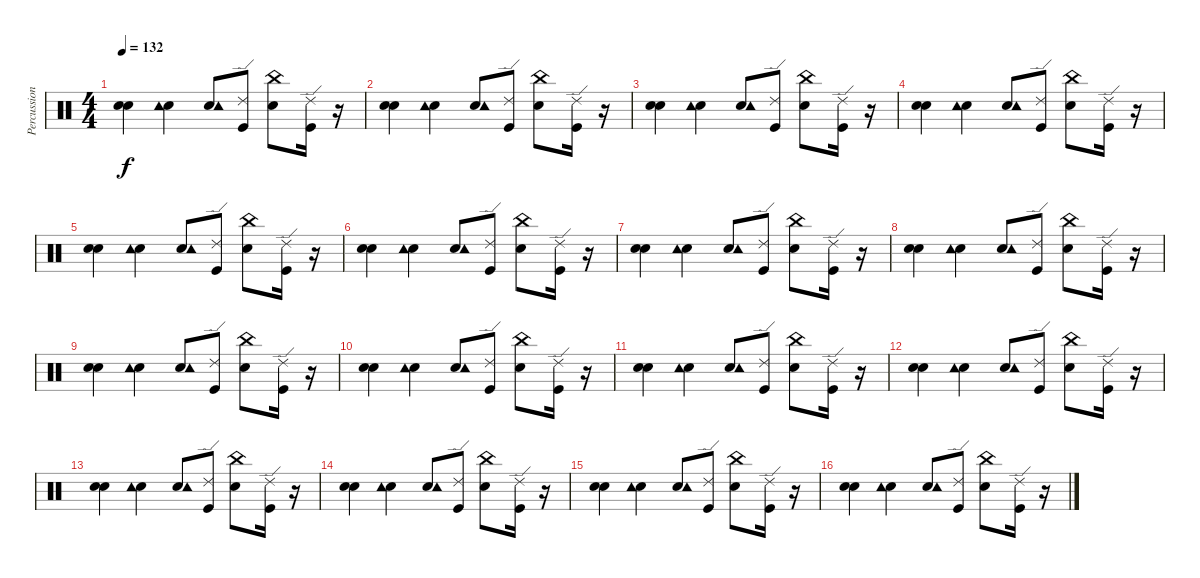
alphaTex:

\track ("Percussions (Reni)" "Percussion") {instrument percussion}
\staff {score}
\articulation defaults
\ts (4 4)
\tempo 132
\clef neutral
\ks c
("Snare (hit) 2" "Electric Snare (hit)").4{dy f} ("Snare (hit) 2" "Tambourine (hit)").4 ("Snare (hit) 2" "Tambourine (hit)").8 ("Kick (hit)" "Ride (edge) 2").8 ("Snare (hit) 2" "China (hit)").8 ("Kick (hit)" "Ride (edge) 2").16 r.16 |
("Snare (hit) 2" "Electric Snare (hit)").4 ("Snare (hit) 2" "Tambourine (hit)").4 ("Snare (hit) 2" "Tambourine (hit)").8 ("Kick (hit)" "Ride (edge) 2").8 ("Snare (hit) 2" "China (hit)").8 ("Kick (hit)" "Ride (edge) 2").16 r.16 |
("Snare (hit) 2" "Electric Snare (hit)").4 ("Snare (hit) 2" "Tambourine (hit)").4 ("Snare (hit) 2" "Tambourine (hit)").8 ("Kick (hit)" "Ride (edge) 2").8 ("Snare (hit) 2" "China (hit)").8 ("Kick (hit)" "Ride (edge) 2").16 r.16 |
("Snare (hit) 2" "Electric Snare (hit)").4 ("Snare (hit) 2" "Tambourine (hit)").4 ("Snare (hit) 2" "Tambourine (hit)").8 ("Kick (hit)" "Ride (edge) 2").8 ("Snare (hit) 2" "China (hit)").8 ("Kick (hit)" "Ride (edge) 2").16 r.16 |
("Snare (hit) 2" "Electric Snare (hit)").4 ("Snare (hit) 2" "Tambourine (hit)").4 ("Snare (hit) 2" "Tambourine (hit)").8 ("Kick (hit)" "Ride (edge) 2").8 ("Snare (hit) 2" "China (hit)").8 ("Kick (hit)" "Ride (edge) 2").16 r.16 |
("Snare (hit) 2" "Electric Snare (hit)").4 ("Snare (hit) 2" "Tambourine (hit)").4 ("Snare (hit) 2" "Tambourine (hit)").8 ("Kick (hit)" "Ride (edge) 2").8 ("Snare (hit) 2" "China (hit)").8 ("Kick (hit)" "Ride (edge) 2").16 r.16 |
("Snare (hit) 2" "Electric Snare (hit)").4 ("Snare (hit) 2" "Tambourine (hit)").4 ("Snare (hit) 2" "Tambourine (hit)").8 ("Kick (hit)" "Ride (edge) 2").8 ("Snare (hit) 2" "China (hit)").8 ("Kick (hit)" "Ride (edge) 2").16 r.16 |
("Snare (hit) 2" "Electric Snare (hit)").4 ("Snare (hit) 2" "Tambourine (hit)").4 ("Snare (hit) 2" "Tambourine (hit)").8 ("Kick (hit)" "Ride (edge) 2").8 ("Snare (hit) 2" "China (hit)").8 ("Kick (hit)" "Ride (edge) 2").16 r.16 |
("Snare (hit) 2" "Electric Snare (hit)").4 ("Snare (hit) 2" "Tambourine (hit)").4 ("Snare (hit) 2" "Tambourine (hit)").8 ("Kick (hit)" "Ride (edge) 2").8 ("Snare (hit) 2" "China (hit)").8 ("Kick (hit)" "Ride (edge) 2").16 r.16 |
("Snare (hit) 2" "Electric Snare (hit)").4 ("Snare (hit) 2" "Tambourine (hit)").4 ("Snare (hit) 2" "Tambourine (hit)").8 ("Kick (hit)" "Ride (edge) 2").8 ("Snare (hit) 2" "China (hit)").8 ("Kick (hit)" "Ride (edge) 2").16 r.16 |
("Snare (hit) 2" "Electric Snare (hit)").4 ("Snare (hit) 2" "Tambourine (hit)").4 ("Snare (hit) 2" "Tambourine (hit)").8 ("Kick (hit)" "Ride (edge) 2").8 ("Snare (hit) 2" "China (hit)").8 ("Kick (hit)" "Ride (edge) 2").16 r.16 |
("Snare (hit) 2" "Electric Snare (hit)").4 ("Snare (hit) 2" "Tambourine (hit)").4 ("Snare (hit) 2" "Tambourine (hit)").8 ("Kick (hit)" "Ride (edge) 2").8 ("Snare (hit) 2" "China (hit)").8 ("Kick (hit)" "Ride (edge) 2").16 r.16 |
("Snare (hit) 2" "Electric Snare (hit)").4 ("Snare (hit) 2" "Tambourine (hit)").4 ("Snare (hit) 2" "Tambourine (hit)").8 ("Kick (hit)" "Ride (edge) 2").8 ("Snare (hit) 2" "China (hit)").8 ("Kick (hit)" "Ride (edge) 2").16 r.16 |
("Snare (hit) 2" "Electric Snare (hit)").4 ("Snare (hit) 2" "Tambourine (hit)").4 ("Snare (hit) 2" "Tambourine (hit)").8 ("Kick (hit)" "Ride (edge) 2").8 ("Snare (hit) 2" "China (hit)").8 ("Kick (hit)" "Ride (edge) 2").16 r.16 |
("Snare (hit) 2" "Electric Snare (hit)").4 ("Snare (hit) 2" "Tambourine (hit)").4 ("Snare (hit) 2" "Tambourine (hit)").8 ("Kick (hit)" "Ride (edge) 2").8 ("Snare (hit) 2" "China (hit)").8 ("Kick (hit)" "Ride (edge) 2").16 r.16 |
("Snare (hit) 2" "Electric Snare (hit)").4 ("Snare (hit) 2" "Tambourine (hit)").4 ("Snare (hit) 2" "Tambourine (hit)").8 ("Kick (hit)" "Ride (edge) 2").8 ("Snare (hit) 2" "China (hit)").8 ("Kick (hit)" "Ride (edge) 2").16 r.16
